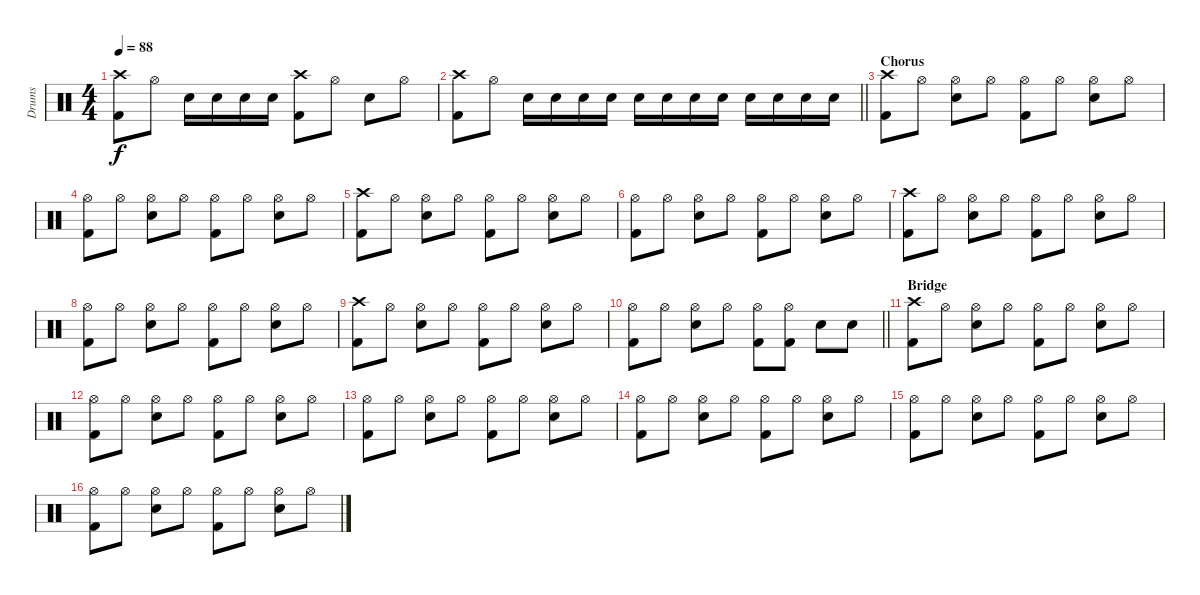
\track ("Drums" "Drums") {instrument percussion}
\staff {score}
\articulation defaults
\ts (4 4)
\tempo 88
\clef neutral
\ks c
("Crash high (hit)" "Kick (hit) 2").8{dy f} "Hi-Hat (open)".8 "Snare (hit) 2".16 "Snare (hit) 2".16 "Snare (hit) 2".16 "Snare (hit) 2".16 ("Crash high (hit)" "Kick (hit) 2").8 "Hi-Hat (open)".8 "Snare (hit) 2".8 "Hi-Hat (open)".8 |
\barLineRight lightlight
("Crash high (hit)" "Kick (hit) 2").8 "Hi-Hat (open)".8 "Snare (hit) 2".16 "Snare (hit) 2".16 "Snare (hit) 2".16 "Snare (hit) 2".16 "Snare (hit) 2".16 "Snare (hit) 2".16 "Snare (hit) 2".16 "Snare (hit) 2".16 "Snare (hit) 2".16 "Snare (hit) 2".16 "Snare (hit) 2".16 "Snare (hit) 2".16 |
\section ("" "Chorus")
("Crash high (hit)" "Kick (hit) 2").8 "Hi-Hat (open)".8 ("Hi-Hat (open)" "Snare (hit) 2").8 "Hi-Hat (open)".8 ("Hi-Hat (open)" "Kick (hit) 2").8 "Hi-Hat (open)".8 ("Hi-Hat (open)" "Snare (hit) 2").8 "Hi-Hat (open)".8 |
("Hi-Hat (open)" "Kick (hit) 2").8 "Hi-Hat (open)".8 ("Hi-Hat (open)" "Snare (hit) 2").8 "Hi-Hat (open)".8 ("Hi-Hat (open)" "Kick (hit) 2").8 "Hi-Hat (open)".8 ("Hi-Hat (open)" "Snare (hit) 2").8 "Hi-Hat (open)".8 |
("Crash high (hit)" "Kick (hit) 2").8 "Hi-Hat (open)".8 ("Hi-Hat (open)" "Snare (hit) 2").8 "Hi-Hat (open)".8 ("Hi-Hat (open)" "Kick (hit) 2").8 "Hi-Hat (open)".8 ("Hi-Hat (open)" "Snare (hit) 2").8 "Hi-Hat (open)".8 |
("Hi-Hat (open)" "Kick (hit) 2").8 "Hi-Hat (open)".8 ("Hi-Hat (open)" "Snare (hit) 2").8 "Hi-Hat (open)".8 ("Hi-Hat (open)" "Kick (hit) 2").8 "Hi-Hat (open)".8 ("Hi-Hat (open)" "Snare (hit) 2").8 "Hi-Hat (open)".8 |
("Crash high (hit)" "Kick (hit) 2").8 "Hi-Hat (open)".8 ("Hi-Hat (open)" "Snare (hit) 2").8 "Hi-Hat (open)".8 ("Hi-Hat (open)" "Kick (hit) 2").8 "Hi-Hat (open)".8 ("Hi-Hat (open)" "Snare (hit) 2").8 "Hi-Hat (open)".8 |
("Hi-Hat (open)" "Kick (hit) 2").8 "Hi-Hat (open)".8 ("Hi-Hat (open)" "Snare (hit) 2").8 "Hi-Hat (open)".8 ("Hi-Hat (open)" "Kick (hit) 2").8 "Hi-Hat (open)".8 ("Hi-Hat (open)" "Snare (hit) 2").8 "Hi-Hat (open)".8 |
("Crash high (hit)" "Kick (hit) 2").8 "Hi-Hat (open)".8 ("Hi-Hat (open)" "Snare (hit) 2").8 "Hi-Hat (open)".8 ("Hi-Hat (open)" "Kick (hit) 2").8 "Hi-Hat (open)".8 ("Hi-Hat (open)" "Snare (hit) 2").8 "Hi-Hat (open)".8 |
\barLineRight lightlight
("Hi-Hat (open)" "Kick (hit) 2").8 "Hi-Hat (open)".8 ("Hi-Hat (open)" "Snare (hit) 2").8 "Hi-Hat (open)".8 ("Hi-Hat (open)" "Kick (hit) 2").8 ("Hi-Hat (open)" "Kick (hit) 2").8 "Snare (hit) 2".8 "Snare (hit) 2".8 |
\section ("" "Bridge")
("Crash high (hit)" "Kick (hit) 2").8 "Hi-Hat (open)".8 ("Hi-Hat (open)" "Snare (hit) 2").8 "Hi-Hat (open)".8 ("Hi-Hat (open)" "Kick (hit) 2").8 "Hi-Hat (open)".8 ("Hi-Hat (open)" "Snare (hit) 2").8 "Hi-Hat (open)".8 |
("Hi-Hat (open)" "Kick (hit) 2").8 "Hi-Hat (open)".8 ("Hi-Hat (open)" "Snare (hit) 2").8 "Hi-Hat (open)".8 ("Hi-Hat (open)" "Kick (hit) 2").8 "Hi-Hat (open)".8 ("Hi-Hat (open)" "Snare (hit) 2").8 "Hi-Hat (open)".8 |
("Hi-Hat (open)" "Kick (hit) 2").8 "Hi-Hat (open)".8 ("Hi-Hat (open)" "Snare (hit) 2").8 "Hi-Hat (open)".8 ("Hi-Hat (open)" "Kick (hit) 2").8 "Hi-Hat (open)".8 ("Hi-Hat (open)" "Snare (hit) 2").8 "Hi-Hat (open)".8 |
("Hi-Hat (open)" "Kick (hit) 2").8 "Hi-Hat (open)".8 ("Hi-Hat (open)" "Snare (hit) 2").8 "Hi-Hat (open)".8 ("Hi-Hat (open)" "Kick (hit) 2").8 "Hi-Hat (open)".8 ("Hi-Hat (open)" "Snare (hit) 2").8 "Hi-Hat (open)".8 |
("Hi-Hat (open)" "Kick (hit) 2").8 "Hi-Hat (open)".8 ("Hi-Hat (open)" "Snare (hit) 2").8 "Hi-Hat (open)".8 ("Hi-Hat (open)" "Kick (hit) 2").8 "Hi-Hat (open)".8 ("Hi-Hat (open)" "Snare (hit) 2").8 "Hi-Hat (open)".8 |
("Hi-Hat (open)" "Kick (hit) 2").8 "Hi-Hat (open)".8 ("Hi-Hat (open)" "Snare (hit) 2").8 "Hi-Hat (open)".8 ("Hi-Hat (open)" "Kick (hit) 2").8 "Hi-Hat (open)".8 ("Hi-Hat (open)" "Snare (hit) 2").8 "Hi-Hat (open)".8
